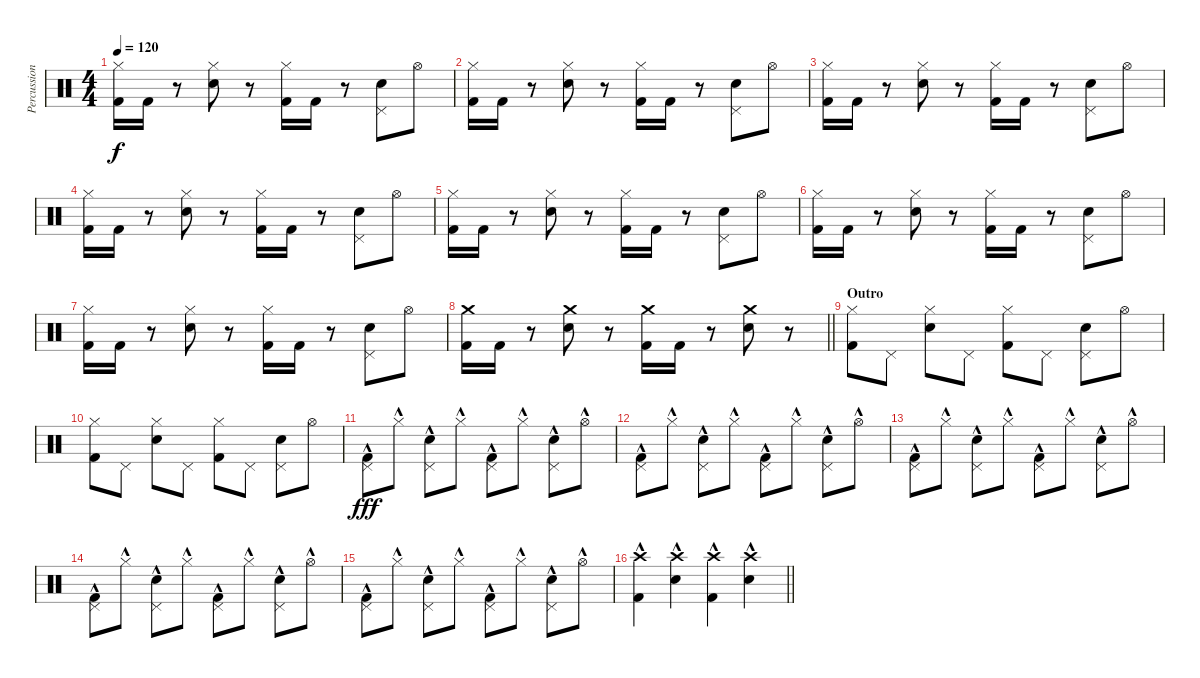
\track ("Percussion" "Percussion") {instrument percussion}
\staff {score}
\articulation defaults
\ts (4 4)
\tempo 120
\clef neutral
\ks c
("Hi-Hat (closed)" "Kick (hit) 2").16{dy f} "Kick (hit) 2".16 r.8 ("Hi-Hat (closed)" "Electric Snare (hit)").8 r.8 ("Hi-Hat (closed)" "Kick (hit) 2").16 "Kick (hit) 2".16 r.8 ("Pedal Hi-Hat (hit)" "Electric Snare (hit)").8 "Hi-Hat (open)".8 |
("Hi-Hat (closed)" "Kick (hit) 2").16 "Kick (hit) 2".16 r.8 ("Hi-Hat (closed)" "Electric Snare (hit)").8 r.8 ("Hi-Hat (closed)" "Kick (hit) 2").16 "Kick (hit) 2".16 r.8 ("Pedal Hi-Hat (hit)" "Electric Snare (hit)").8 "Hi-Hat (open)".8 |
("Hi-Hat (closed)" "Kick (hit) 2").16 "Kick (hit) 2".16 r.8 ("Hi-Hat (closed)" "Electric Snare (hit)").8 r.8 ("Hi-Hat (closed)" "Kick (hit) 2").16 "Kick (hit) 2".16 r.8 ("Pedal Hi-Hat (hit)" "Electric Snare (hit)").8 "Hi-Hat (open)".8 |
("Hi-Hat (closed)" "Kick (hit) 2").16 "Kick (hit) 2".16 r.8 ("Hi-Hat (closed)" "Electric Snare (hit)").8 r.8 ("Hi-Hat (closed)" "Kick (hit) 2").16 "Kick (hit) 2".16 r.8 ("Pedal Hi-Hat (hit)" "Electric Snare (hit)").8 "Hi-Hat (open)".8 |
("Hi-Hat (closed)" "Kick (hit) 2").16 "Kick (hit) 2".16 r.8 ("Hi-Hat (closed)" "Electric Snare (hit)").8 r.8 ("Hi-Hat (closed)" "Kick (hit) 2").16 "Kick (hit) 2".16 r.8 ("Pedal Hi-Hat (hit)" "Electric Snare (hit)").8 "Hi-Hat (open)".8 |
("Hi-Hat (closed)" "Kick (hit) 2").16 "Kick (hit) 2".16 r.8 ("Hi-Hat (closed)" "Electric Snare (hit)").8 r.8 ("Hi-Hat (closed)" "Kick (hit) 2").16 "Kick (hit) 2".16 r.8 ("Pedal Hi-Hat (hit)" "Electric Snare (hit)").8 "Hi-Hat (open)".8 |
("Hi-Hat (closed)" "Kick (hit) 2").16 "Kick (hit) 2".16 r.8 ("Hi-Hat (closed)" "Electric Snare (hit)").8 r.8 ("Hi-Hat (closed)" "Kick (hit) 2").16 "Kick (hit) 2".16 r.8 ("Pedal Hi-Hat (hit)" "Electric Snare (hit)").8 "Hi-Hat (open)".8 |
\barLineRight lightlight
("Crash medium (hit)" "Kick (hit) 2").16 "Kick (hit) 2".16 r.8 ("Crash medium (hit)" "Electric Snare (hit)").8 r.8 ("Crash medium (hit)" "Kick (hit) 2").16 "Kick (hit) 2".16 r.8 ("Crash medium (hit)" "Electric Snare (hit)").8 r.8 |
\section ("" "Outro")
("Hi-Hat (closed)" "Kick (hit) 2").8 "Pedal Hi-Hat (hit)".8 ("Hi-Hat (closed)" "Electric Snare (hit)").8 "Pedal Hi-Hat (hit)".8 ("Hi-Hat (closed)" "Kick (hit) 2").8 "Pedal Hi-Hat (hit)".8 ("Pedal Hi-Hat (hit)" "Electric Snare (hit)").8 "Hi-Hat (open)".8 |
("Hi-Hat (closed)" "Kick (hit) 2").8 "Pedal Hi-Hat (hit)".8 ("Hi-Hat (closed)" "Electric Snare (hit)").8 "Pedal Hi-Hat (hit)".8 ("Hi-Hat (closed)" "Kick (hit) 2").8 "Pedal Hi-Hat (hit)".8 ("Pedal Hi-Hat (hit)" "Electric Snare (hit)").8 "Hi-Hat (open)".8 |
("Pedal Hi-Hat (hit)" "Kick (hit) 2"{hac}).8{dy fff} "Hi-Hat (closed)"{hac}.8 ("Pedal Hi-Hat (hit)" "Electric Snare (hit)"{hac}).8 "Hi-Hat (closed)"{hac}.8 ("Pedal Hi-Hat (hit)" "Kick (hit) 2"{hac}).8 "Hi-Hat (closed)"{hac}.8 ("Pedal Hi-Hat (hit)" "Electric Snare (hit)"{hac}).8 "Hi-Hat (open)"{hac}.8 |
("Pedal Hi-Hat (hit)" "Kick (hit) 2"{hac}).8 "Hi-Hat (closed)"{hac}.8 ("Pedal Hi-Hat (hit)" "Electric Snare (hit)"{hac}).8 "Hi-Hat (closed)"{hac}.8 ("Pedal Hi-Hat (hit)" "Kick (hit) 2"{hac}).8 "Hi-Hat (closed)"{hac}.8 ("Pedal Hi-Hat (hit)" "Electric Snare (hit)"{hac}).8 "Hi-Hat (open)"{hac}.8 |
("Pedal Hi-Hat (hit)" "Kick (hit) 2"{hac}).8 "Hi-Hat (closed)"{hac}.8 ("Pedal Hi-Hat (hit)" "Electric Snare (hit)"{hac}).8 "Hi-Hat (closed)"{hac}.8 ("Pedal Hi-Hat (hit)" "Kick (hit) 2"{hac}).8 "Hi-Hat (closed)"{hac}.8 ("Pedal Hi-Hat (hit)" "Electric Snare (hit)"{hac}).8 "Hi-Hat (open)"{hac}.8 |
("Pedal Hi-Hat (hit)" "Kick (hit) 2"{hac}).8 "Hi-Hat (closed)"{hac}.8 ("Pedal Hi-Hat (hit)" "Electric Snare (hit)"{hac}).8 "Hi-Hat (closed)"{hac}.8 ("Pedal Hi-Hat (hit)" "Kick (hit) 2"{hac}).8 "Hi-Hat (closed)"{hac}.8 ("Pedal Hi-Hat (hit)" "Electric Snare (hit)"{hac}).8 "Hi-Hat (open)"{hac}.8 |
("Pedal Hi-Hat (hit)" "Kick (hit) 2"{hac}).8 "Hi-Hat (closed)"{hac}.8 ("Pedal Hi-Hat (hit)" "Electric Snare (hit)"{hac}).8 "Hi-Hat (closed)"{hac}.8 ("Pedal Hi-Hat (hit)" "Kick (hit) 2"{hac}).8 "Hi-Hat (closed)"{hac}.8 ("Pedal Hi-Hat (hit)" "Electric Snare (hit)"{hac}).8 "Hi-Hat (open)"{hac}.8 |
\barLineRight lightlight
("Crash high (hit)" "Kick (hit) 2"{hac}).4 ("Crash high (hit)" "Electric Snare (hit)"{hac}).4 ("Crash high (hit)" "Kick (hit) 2"{hac}).4 ("Crash high (hit)" "Electric Snare (hit)"{hac}).4
